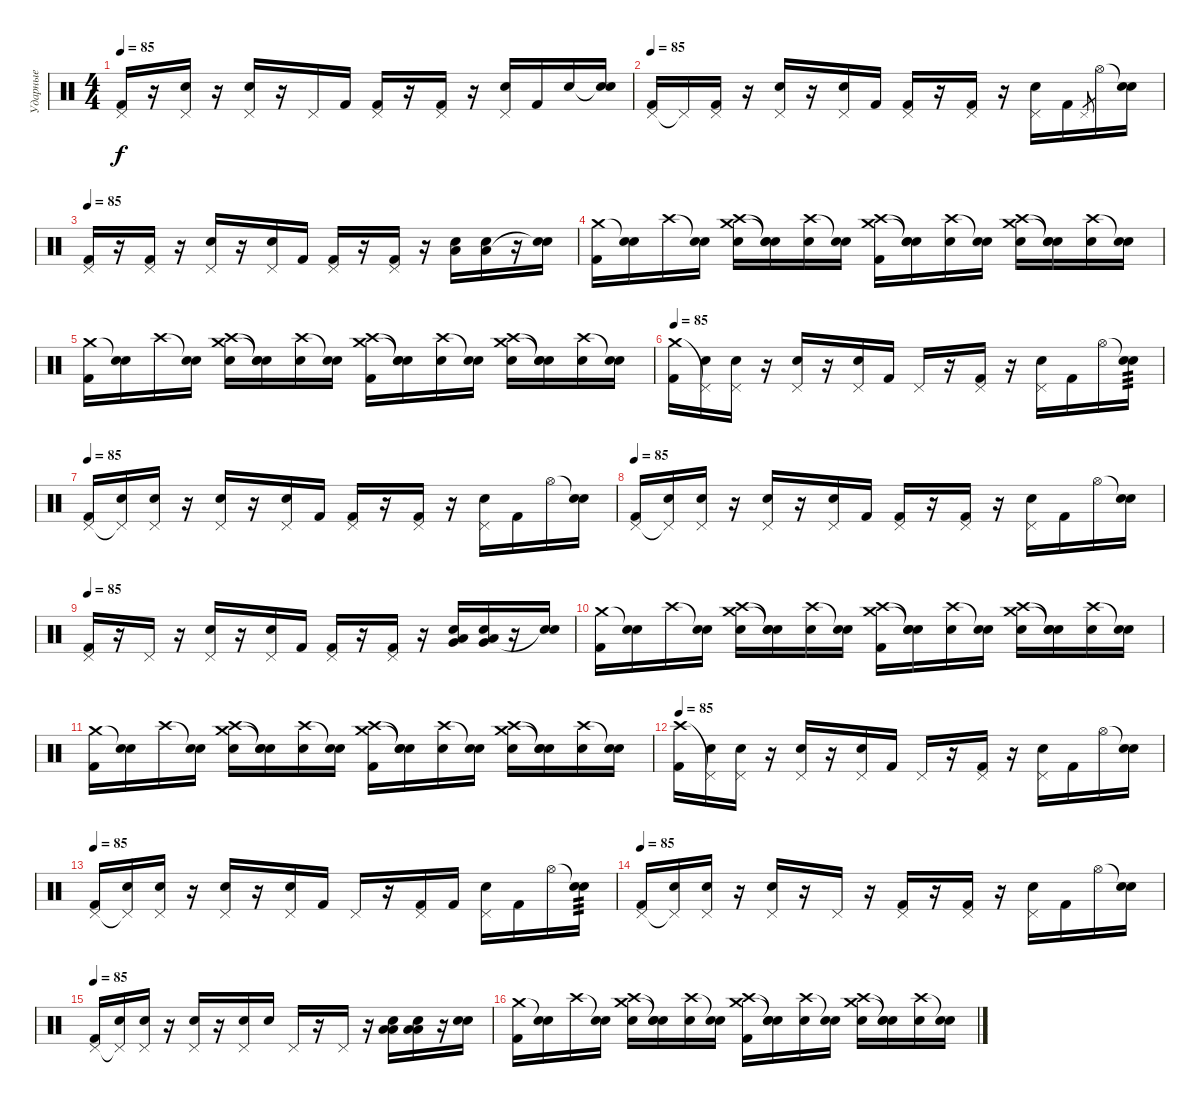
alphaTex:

\track ("Ударные" "Ударные") {instrument percussion}
\staff {score}
\articulation defaults
\ts (4 4)
\tempo 85
\clef neutral
\ks c
("Pedal Hi-Hat (hit)" "Kick (hit) 2").16{dy f} r.16 ("Pedal Hi-Hat (hit)" "Snare (hit)").16 r.16 ("Pedal Hi-Hat (hit)" "Electric Snare (hit)").16 r.16 "Pedal Hi-Hat (hit)".16 "Kick (hit) 2".16 ("Pedal Hi-Hat (hit)" "Kick (hit) 2").16 r.16 ("Pedal Hi-Hat (hit)" "Kick (hit) 2").16 r.16 ("Pedal Hi-Hat (hit)" "Electric Snare (hit)").16 "Kick (hit) 2".16 "Electric Snare (hit)".16 ("Snare (hit)"{t} "Electric Snare (hit)").16 |
\tempo 85
("Pedal Hi-Hat (hit)" "Kick (hit) 2").16 "Pedal Hi-Hat (hit)"{t}.16 ("Pedal Hi-Hat (hit)" "Kick (hit) 2").16 r.16 ("Pedal Hi-Hat (hit)" "Electric Snare (hit)").16 r.16 ("Pedal Hi-Hat (hit)" "Snare (hit)").16 "Kick (hit) 2".16 ("Pedal Hi-Hat (hit)" "Kick (hit) 2").16 r.16 ("Pedal Hi-Hat (hit)" "Kick (hit) 2").16 r.16 ("Pedal Hi-Hat (hit)" "Electric Snare (hit)").16 "Kick (hit) 2".16 "Pedal Hi-Hat (hit)".8{gr} "Hi-Hat (open)".16 ("Snare (hit)"{t} "Snare (hit)").16 |
\tempo 85
("Pedal Hi-Hat (hit)" "Kick (hit) 2").16 r.16 ("Pedal Hi-Hat (hit)" "Kick (hit) 2").16 r.16 ("Pedal Hi-Hat (hit)" "Electric Snare (hit)").16 r.16 ("Pedal Hi-Hat (hit)" "Snare (hit)").16 "Kick (hit) 2".16 ("Pedal Hi-Hat (hit)" "Kick (hit) 2").16 r.16 ("Pedal Hi-Hat (hit)" "Kick (hit) 2").16 r.16 ("Low Tom (hit)" "Electric Snare (hit)").16 ("Low Tom (hit)" "Electric Snare (hit)").16 r.16 ("Snare (hit)"{t} "Snare (hit)").16 |
("Crash medium (hit)" "Kick (hit) 2").16 ("Snare (hit)"{t} "Snare (hit)").16 "Crash high (hit)".16 ("Snare (hit)"{t} "Snare (hit)").16 ("Crash medium (hit)" "Crash high (hit)" "Electric Snare (hit)").16 ("Snare (hit)"{t} "Snare (hit)"{t} "Snare (hit)").16 ("Crash high (hit)" "Snare (hit)").16 ("Snare (hit)"{t} "Snare (hit)").16 ("Crash medium (hit)" "Crash high (hit)" "Kick (hit) 2").16 ("Snare (hit)"{t} "Snare (hit)"{t} "Snare (hit)").16 ("Crash high (hit)" "Snare (hit)").16 ("Snare (hit)"{t} "Snare (hit)").16 ("Crash medium (hit)" "Crash high (hit)" "Electric Snare (hit)").16 ("Snare (hit)"{t} "Snare (hit)"{t} "Snare (hit)").16 ("Crash high (hit)" "Snare (hit)").16 ("Snare (hit)"{t} "Snare (hit)").16 |
("Crash medium (hit)" "Kick (hit) 2").16 ("Snare (hit)"{t} "Snare (hit)").16 "Crash high (hit)".16 ("Snare (hit)"{t} "Snare (hit)").16 ("Crash medium (hit)" "Crash high (hit)" "Electric Snare (hit)").16 ("Snare (hit)"{t} "Snare (hit)"{t} "Snare (hit)").16 ("Crash high (hit)" "Snare (hit)").16 ("Snare (hit)"{t} "Snare (hit)").16 ("Crash medium (hit)" "Crash high (hit)" "Kick (hit) 2").16 ("Snare (hit)"{t} "Snare (hit)"{t} "Snare (hit)").16 ("Crash high (hit)" "Snare (hit)").16 ("Snare (hit)"{t} "Snare (hit)").16 ("Crash medium (hit)" "Crash high (hit)" "Electric Snare (hit)").16 ("Snare (hit)"{t} "Snare (hit)"{t} "Snare (hit)").16 ("Crash high (hit)" "Snare (hit)").16 ("Snare (hit)"{t} "Snare (hit)").16 |
\tempo 85
("Crash medium (hit)" "Kick (hit) 2").16 ("Pedal Hi-Hat (hit)"{t} "Snare (hit)").16 ("Pedal Hi-Hat (hit)" "Snare (hit)").16 r.16 ("Pedal Hi-Hat (hit)" "Electric Snare (hit)").16 r.16 ("Pedal Hi-Hat (hit)" "Snare (hit)").16 "Kick (hit) 2".16 "Pedal Hi-Hat (hit)".16 r.16 ("Pedal Hi-Hat (hit)" "Kick (hit) 2").16 r.16 ("Pedal Hi-Hat (hit)" "Electric Snare (hit)").16 "Kick (hit) 2".16 "Hi-Hat (open)".16 ("Snare (hit)"{t} "Electric Snare (hit)").16{tp 3} |
\tempo 85
("Pedal Hi-Hat (hit)" "Kick (hit) 2").16 ("Pedal Hi-Hat (hit)"{t} "Snare (hit)").16 ("Pedal Hi-Hat (hit)" "Snare (hit)").16 r.16 ("Pedal Hi-Hat (hit)" "Electric Snare (hit)").16 r.16 ("Pedal Hi-Hat (hit)" "Snare (hit)").16 "Kick (hit) 2".16 ("Pedal Hi-Hat (hit)" "Kick (hit) 2").16 r.16 ("Pedal Hi-Hat (hit)" "Kick (hit) 2").16 r.16 ("Pedal Hi-Hat (hit)" "Electric Snare (hit)").16 "Kick (hit) 2".16 "Hi-Hat (open)".16 ("Snare (hit)"{t} "Snare (hit)").16 |
\tempo 85
("Pedal Hi-Hat (hit)" "Kick (hit) 2").16 ("Pedal Hi-Hat (hit)"{t} "Snare (hit)").16 ("Pedal Hi-Hat (hit)" "Snare (hit)").16 r.16 ("Pedal Hi-Hat (hit)" "Electric Snare (hit)").16 r.16 ("Pedal Hi-Hat (hit)" "Snare (hit)").16 "Kick (hit) 2".16 ("Pedal Hi-Hat (hit)" "Kick (hit) 2").16 r.16 ("Pedal Hi-Hat (hit)" "Kick (hit) 2").16 r.16 ("Pedal Hi-Hat (hit)" "Electric Snare (hit)").16 "Kick (hit) 2".16 "Hi-Hat (open)".16 ("Snare (hit)"{t} "Snare (hit)").16 |
\tempo 85
("Pedal Hi-Hat (hit)" "Kick (hit) 2").16 r.16 "Pedal Hi-Hat (hit)".16 r.16 ("Pedal Hi-Hat (hit)" "Electric Snare (hit)").16 r.16 ("Pedal Hi-Hat (hit)" "Snare (hit)").16 "Kick (hit) 2".16 ("Pedal Hi-Hat (hit)" "Kick (hit) 2").16 r.16 ("Pedal Hi-Hat (hit)" "Kick (hit) 2").16 r.16 ("Very Low Tom (hit)" "Low Tom (hit)" "Electric Snare (hit)").16 ("Very Low Tom (hit)" "Low Tom (hit)" "Electric Snare (hit)").16 r.16 ("Snare (hit)"{t} "Snare (hit)").16 |
("Crash medium (hit)" "Kick (hit) 2").16 ("Snare (hit)"{t} "Snare (hit)").16 "Crash high (hit)".16 ("Snare (hit)"{t} "Snare (hit)").16 ("Crash medium (hit)" "Crash high (hit)" "Electric Snare (hit)").16 ("Snare (hit)"{t} "Snare (hit)"{t} "Snare (hit)").16 ("Crash high (hit)" "Snare (hit)").16 ("Snare (hit)"{t} "Snare (hit)").16 ("Crash medium (hit)" "Crash high (hit)" "Kick (hit) 2").16 ("Snare (hit)"{t} "Snare (hit)"{t} "Snare (hit)").16 ("Crash high (hit)" "Snare (hit)").16 ("Snare (hit)"{t} "Snare (hit)").16 ("Crash medium (hit)" "Crash high (hit)" "Electric Snare (hit)").16 ("Snare (hit)"{t} "Snare (hit)"{t} "Snare (hit)").16 ("Crash high (hit)" "Snare (hit)").16 ("Snare (hit)"{t} "Snare (hit)").16 |
("Crash medium (hit)" "Kick (hit) 2").16 ("Snare (hit)"{t} "Snare (hit)").16 "Crash high (hit)".16 ("Snare (hit)"{t} "Snare (hit)").16 ("Crash medium (hit)" "Crash high (hit)" "Electric Snare (hit)").16 ("Snare (hit)"{t} "Snare (hit)"{t} "Snare (hit)").16 ("Crash high (hit)" "Snare (hit)").16 ("Snare (hit)"{t} "Snare (hit)").16 ("Crash medium (hit)" "Crash high (hit)" "Kick (hit) 2").16 ("Snare (hit)"{t} "Snare (hit)"{t} "Snare (hit)").16 ("Crash high (hit)" "Snare (hit)").16 ("Snare (hit)"{t} "Snare (hit)").16 ("Crash medium (hit)" "Crash high (hit)" "Electric Snare (hit)").16 ("Snare (hit)"{t} "Snare (hit)"{t} "Snare (hit)").16 ("Crash high (hit)" "Snare (hit)").16 ("Snare (hit)"{t} "Snare (hit)").16 |
\tempo 85
("Crash high (hit)" "Kick (hit) 2").16 ("Pedal Hi-Hat (hit)"{t} "Snare (hit)").16 ("Pedal Hi-Hat (hit)" "Snare (hit)").16 r.16 ("Pedal Hi-Hat (hit)" "Electric Snare (hit)").16 r.16 ("Pedal Hi-Hat (hit)" "Snare (hit)").16 "Kick (hit) 2".16 "Pedal Hi-Hat (hit)".16 r.16 ("Pedal Hi-Hat (hit)" "Kick (hit) 2").16 r.16 ("Pedal Hi-Hat (hit)" "Electric Snare (hit)").16 "Kick (hit) 2".16 "Hi-Hat (open)".16 ("Snare (hit)"{t} "Snare (hit)").16 |
\tempo 85
("Pedal Hi-Hat (hit)" "Kick (hit) 2").16 ("Pedal Hi-Hat (hit)"{t} "Snare (hit)").16 ("Pedal Hi-Hat (hit)" "Snare (hit)").16 r.16 ("Pedal Hi-Hat (hit)" "Electric Snare (hit)").16 r.16 ("Pedal Hi-Hat (hit)" "Snare (hit)").16 "Kick (hit) 2".16 "Pedal Hi-Hat (hit)".16 r.16 ("Pedal Hi-Hat (hit)" "Kick (hit) 2").16 "Kick (hit) 2".16 ("Pedal Hi-Hat (hit)" "Electric Snare (hit)").16 "Kick (hit) 2".16 "Hi-Hat (open)".16 ("Snare (hit)"{t} "Electric Snare (hit)").16{tp 3} |
\tempo 85
("Pedal Hi-Hat (hit)" "Kick (hit) 2").16 ("Pedal Hi-Hat (hit)"{t} "Snare (hit)").16 ("Pedal Hi-Hat (hit)" "Snare (hit)").16 r.16 ("Pedal Hi-Hat (hit)" "Electric Snare (hit)").16 r.16 "Pedal Hi-Hat (hit)".16 r.16 ("Pedal Hi-Hat (hit)" "Kick (hit) 2").16 r.16 ("Pedal Hi-Hat (hit)" "Kick (hit) 2").16 r.16 ("Pedal Hi-Hat (hit)" "Electric Snare (hit)").16 "Kick (hit) 2".16 "Hi-Hat (open)".16 ("Snare (hit)"{t} "Snare (hit)").16 |
\tempo 85
("Pedal Hi-Hat (hit)" "Kick (hit) 2").16 ("Pedal Hi-Hat (hit)"{t} "Snare (hit)").16 ("Pedal Hi-Hat (hit)" "Snare (hit)").16 r.16 ("Pedal Hi-Hat (hit)" "Electric Snare (hit)").16 r.16 ("Pedal Hi-Hat (hit)" "Snare (hit)").16 "Electric Snare (hit)".16 "Pedal Hi-Hat (hit)".16 r.16 "Pedal Hi-Hat (hit)".16 r.16 ("Low Tom (hit)" "Low Floor Tom (hit)" "Electric Snare (hit)").16 ("Low Tom (hit)" "Low Floor Tom (hit)" "Electric Snare (hit)").16 r.16 ("Snare (hit)" "Snare (hit)").16 |
("Crash medium (hit)" "Kick (hit) 2").16 ("Snare (hit)"{t} "Snare (hit)").16 "Crash high (hit)".16 ("Snare (hit)"{t} "Snare (hit)").16 ("Crash medium (hit)" "Crash high (hit)" "Electric Snare (hit)").16 ("Snare (hit)"{t} "Snare (hit)"{t} "Snare (hit)").16 ("Crash high (hit)" "Snare (hit)").16 ("Snare (hit)"{t} "Snare (hit)").16 ("Crash medium (hit)" "Crash high (hit)" "Kick (hit) 2").16 ("Snare (hit)"{t} "Snare (hit)"{t} "Snare (hit)").16 ("Crash high (hit)" "Snare (hit)").16 ("Snare (hit)"{t} "Snare (hit)").16 ("Crash medium (hit)" "Crash high (hit)" "Electric Snare (hit)").16 ("Snare (hit)"{t} "Snare (hit)"{t} "Snare (hit)").16 ("Crash high (hit)" "Snare (hit)").16 ("Snare (hit)"{t} "Snare (hit)").16
